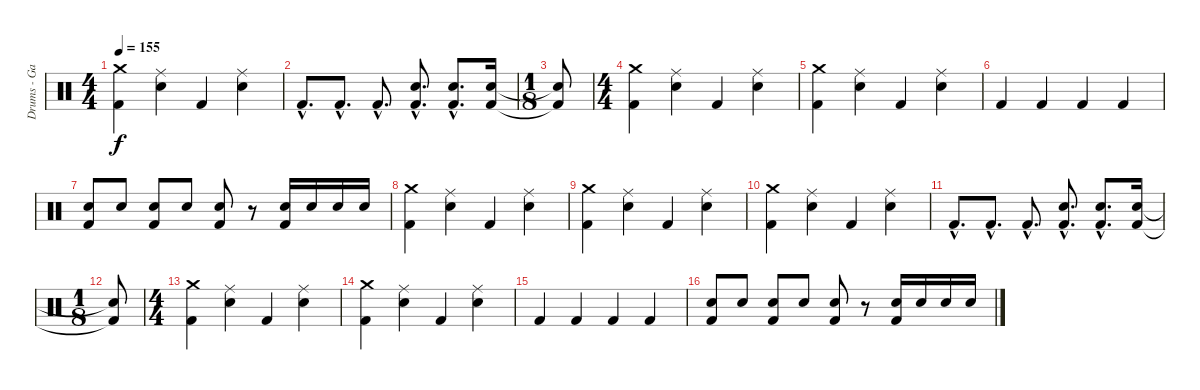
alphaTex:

\track ("Drums - Gary" "Drums - Ga") {instrument percussion}
\staff {score}
\articulation defaults
\ts (4 4)
\tempo 155
\clef neutral
\ks c
("Crash medium (hit)" "Kick (hit) 2").4{dy f} ("Snare (hit) 2" "Ride (middle)").4 "Kick (hit) 2".4 ("Snare (hit) 2" "Ride (middle)").4 |
"Kick (hit) 2"{hac}.8{d} "Kick (hit) 2"{hac}.8{d} "Kick (hit) 2"{hac}.8{d} ("Snare (hit) 2"{hac} "Kick (hit) 2"{hac}).8{d} ("Snare (hit) 2"{hac} "Kick (hit) 2"{hac}).8{d} ("Snare (hit) 2" "Kick (hit) 2").16 |
\ts (1 8)
("Snare (hit) 2"{t} "Kick (hit) 2"{t}).8 |
\ts (4 4)
("Crash medium (hit)" "Kick (hit) 2").4 ("Snare (hit) 2" "Ride (middle)").4 "Kick (hit) 2".4 ("Snare (hit) 2" "Ride (middle)").4 |
("Crash medium (hit)" "Kick (hit) 2").4 ("Snare (hit) 2" "Ride (middle)").4 "Kick (hit) 2".4 ("Snare (hit) 2" "Ride (middle)").4 |
"Kick (hit) 2".4 "Kick (hit) 2".4 "Kick (hit) 2".4 "Kick (hit) 2".4 |
("Snare (hit) 2" "Kick (hit) 2").8 "Snare (hit) 2".8 ("Snare (hit) 2" "Kick (hit) 2").8 "Snare (hit) 2".8 ("Snare (hit) 2" "Kick (hit) 2").8 r.8 ("Snare (hit) 2" "Kick (hit) 2").16 "Snare (hit) 2".16 "Snare (hit) 2".16 "Snare (hit) 2".16 |
("Crash medium (hit)" "Kick (hit) 2").4 ("Snare (hit) 2" "Ride (middle)").4 "Kick (hit) 2".4 ("Snare (hit) 2" "Ride (middle)").4 |
("Crash medium (hit)" "Kick (hit) 2").4 ("Snare (hit) 2" "Ride (middle)").4 "Kick (hit) 2".4 ("Snare (hit) 2" "Ride (middle)").4 |
("Crash medium (hit)" "Kick (hit) 2").4 ("Snare (hit) 2" "Ride (middle)").4 "Kick (hit) 2".4 ("Snare (hit) 2" "Ride (middle)").4 |
"Kick (hit) 2"{hac}.8{d} "Kick (hit) 2"{hac}.8{d} "Kick (hit) 2"{hac}.8{d} ("Snare (hit) 2"{hac} "Kick (hit) 2"{hac}).8{d} ("Snare (hit) 2"{hac} "Kick (hit) 2"{hac}).8{d} ("Snare (hit) 2" "Kick (hit) 2").16 |
\ts (1 8)
("Snare (hit) 2"{t} "Kick (hit) 2"{t}).8 |
\ts (4 4)
("Crash medium (hit)" "Kick (hit) 2").4 ("Snare (hit) 2" "Ride (middle)").4 "Kick (hit) 2".4 ("Snare (hit) 2" "Ride (middle)").4 |
("Crash medium (hit)" "Kick (hit) 2").4 ("Snare (hit) 2" "Ride (middle)").4 "Kick (hit) 2".4 ("Snare (hit) 2" "Ride (middle)").4 |
"Kick (hit) 2".4 "Kick (hit) 2".4 "Kick (hit) 2".4 "Kick (hit) 2".4 |
("Snare (hit) 2" "Kick (hit) 2").8 "Snare (hit) 2".8 ("Snare (hit) 2" "Kick (hit) 2").8 "Snare (hit) 2".8 ("Snare (hit) 2" "Kick (hit) 2").8 r.8 ("Snare (hit) 2" "Kick (hit) 2").16 "Snare (hit) 2".16 "Snare (hit) 2".16 "Snare (hit) 2".16
